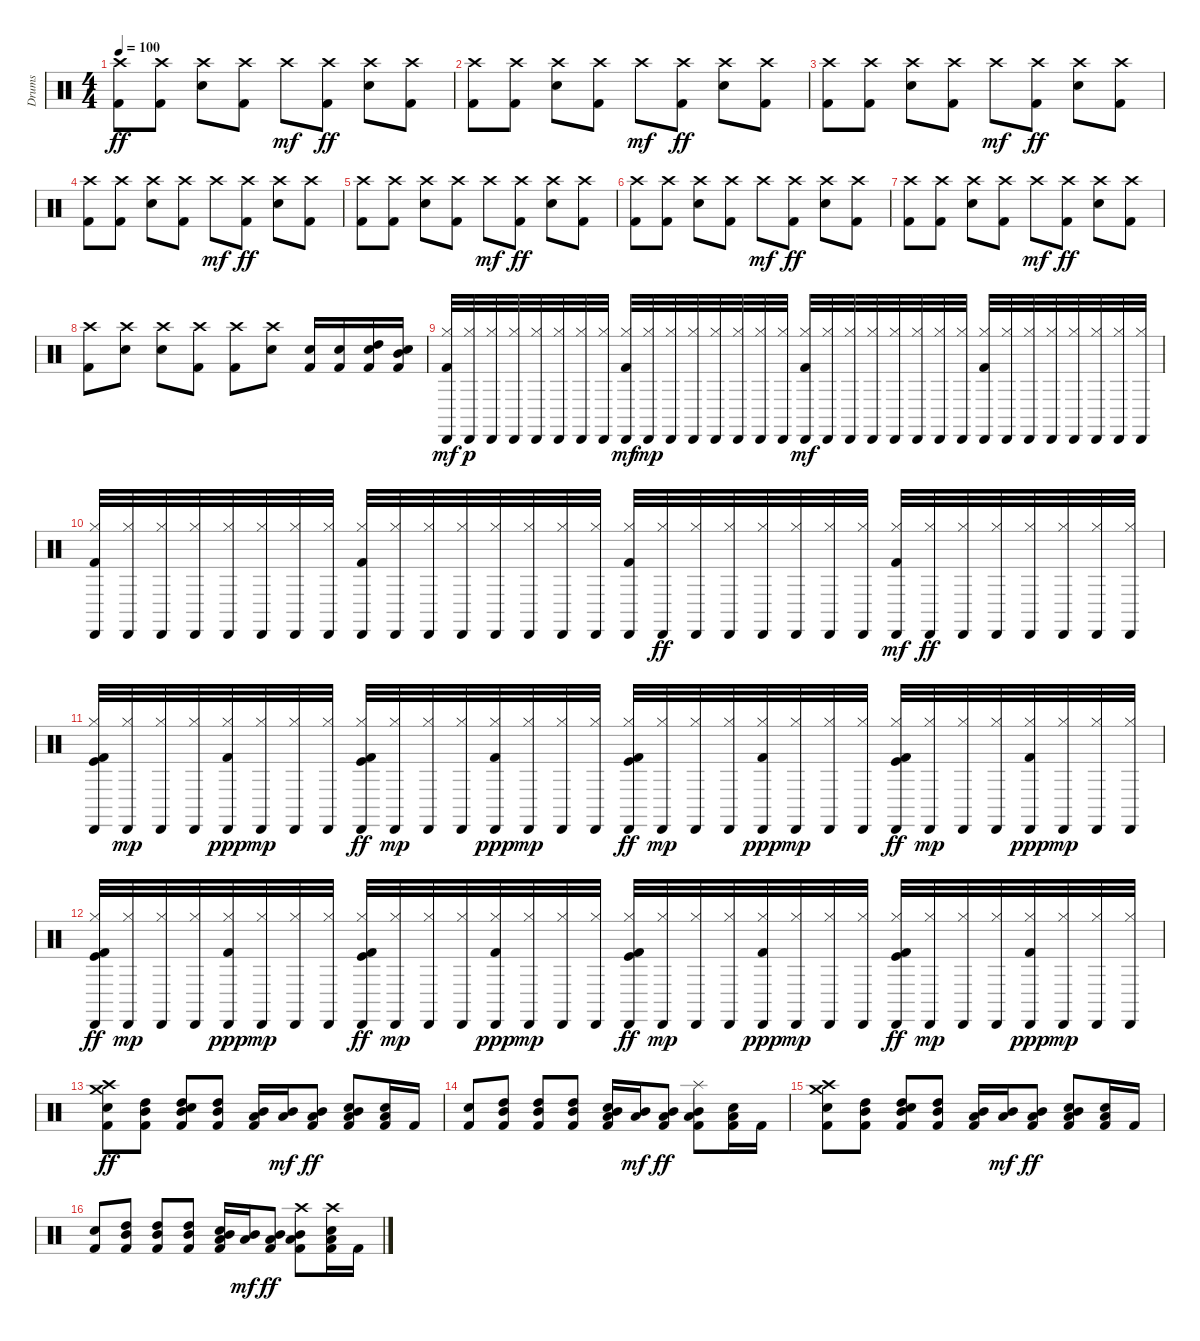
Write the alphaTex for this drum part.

\track ("Drums" "Drums") {instrument percussion}
\staff {score}
\articulation defaults
\ts (4 4)
\tempo 100
\clef neutral
\ks c
("Crash high (hit)" "Kick (hit) 2").8{dy ff} ("Crash high (hit)" "Kick (hit) 2").8 ("Crash high (hit)" "Electric Snare (hit)").8 ("Crash high (hit)" "Kick (hit) 2").8 "Crash high (hit)".8{dy mf} ("Crash high (hit)" "Kick (hit) 2").8{dy ff} ("Crash high (hit)" "Electric Snare (hit)").8 ("Crash high (hit)" "Kick (hit) 2").8 |
("Crash high (hit)" "Kick (hit) 2").8 ("Crash high (hit)" "Kick (hit) 2").8 ("Crash high (hit)" "Electric Snare (hit)").8 ("Crash high (hit)" "Kick (hit) 2").8 "Crash high (hit)".8{dy mf} ("Crash high (hit)" "Kick (hit) 2").8{dy ff} ("Crash high (hit)" "Electric Snare (hit)").8 ("Crash high (hit)" "Kick (hit) 2").8 |
("Crash high (hit)" "Kick (hit) 2").8 ("Crash high (hit)" "Kick (hit) 2").8 ("Crash high (hit)" "Electric Snare (hit)").8 ("Crash high (hit)" "Kick (hit) 2").8 "Crash high (hit)".8{dy mf} ("Crash high (hit)" "Kick (hit) 2").8{dy ff} ("Crash high (hit)" "Electric Snare (hit)").8 ("Crash high (hit)" "Kick (hit) 2").8 |
("Crash high (hit)" "Kick (hit) 2").8 ("Crash high (hit)" "Kick (hit) 2").8 ("Crash high (hit)" "Electric Snare (hit)").8 ("Crash high (hit)" "Kick (hit) 2").8 "Crash high (hit)".8{dy mf} ("Crash high (hit)" "Kick (hit) 2").8{dy ff} ("Crash high (hit)" "Electric Snare (hit)").8 ("Crash high (hit)" "Kick (hit) 2").8 |
("Crash high (hit)" "Kick (hit) 2").8 ("Crash high (hit)" "Kick (hit) 2").8 ("Crash high (hit)" "Electric Snare (hit)").8 ("Crash high (hit)" "Kick (hit) 2").8 "Crash high (hit)".8{dy mf} ("Crash high (hit)" "Kick (hit) 2").8{dy ff} ("Crash high (hit)" "Electric Snare (hit)").8 ("Crash high (hit)" "Kick (hit) 2").8 |
("Crash high (hit)" "Kick (hit) 2").8 ("Crash high (hit)" "Kick (hit) 2").8 ("Crash high (hit)" "Electric Snare (hit)").8 ("Crash high (hit)" "Kick (hit) 2").8 "Crash high (hit)".8{dy mf} ("Crash high (hit)" "Kick (hit) 2").8{dy ff} ("Crash high (hit)" "Electric Snare (hit)").8 ("Crash high (hit)" "Kick (hit) 2").8 |
("Crash high (hit)" "Kick (hit) 2").8 ("Crash high (hit)" "Kick (hit) 2").8 ("Crash high (hit)" "Electric Snare (hit)").8 ("Crash high (hit)" "Kick (hit) 2").8 "Crash high (hit)".8{dy mf} ("Crash high (hit)" "Kick (hit) 2").8{dy ff} ("Crash high (hit)" "Electric Snare (hit)").8 ("Crash high (hit)" "Kick (hit) 2").8 |
("Crash high (hit)" "Kick (hit) 2").8 ("Crash high (hit)" "Electric Snare (hit)").8 ("Crash high (hit)" "Electric Snare (hit)").8 ("Crash high (hit)" "Kick (hit) 2").8 ("Crash high (hit)" "Kick (hit) 2").8 ("Crash high (hit)" "Electric Snare (hit)").8 ("Electric Snare (hit)" "Kick (hit) 2").16 ("Electric Snare (hit)" "Kick (hit) 2").16 ("High Tom (hit)" "Electric Snare (hit)" "Kick (hit) 2").16 ("Mid Tom (hit)" "Electric Snare (hit)" "Kick (hit) 2").16 |
("Hi-Hat (closed)" "Cabasa (hit)" "Kick (hit) 2").32{dy mf volume 5} ("Hi-Hat (closed)" "Cabasa (hit)").32{dy p} ("Hi-Hat (closed)" "Cabasa (hit)").32 ("Hi-Hat (closed)" "Cabasa (hit)").32 ("Hi-Hat (closed)" "Cabasa (hit)").32 ("Hi-Hat (closed)" "Cabasa (hit)").32 ("Hi-Hat (closed)" "Cabasa (hit)").32 ("Hi-Hat (closed)" "Cabasa (hit)").32 ("Hi-Hat (closed)" "Cabasa (hit)" "Kick (hit) 2").32{dy mf} ("Hi-Hat (closed)" "Cabasa (hit)").32{dy mp} ("Hi-Hat (closed)" "Cabasa (hit)").32 ("Hi-Hat (closed)" "Cabasa (hit)").32 ("Hi-Hat (closed)" "Cabasa (hit)").32 ("Hi-Hat (closed)" "Cabasa (hit)").32 ("Hi-Hat (closed)" "Cabasa (hit)").32 ("Hi-Hat (closed)" "Cabasa (hit)").32 ("Hi-Hat (closed)" "Cabasa (hit)" "Kick (hit) 2").32{dy mf} ("Hi-Hat (closed)" "Cabasa (hit)").32 ("Hi-Hat (closed)" "Cabasa (hit)").32 ("Hi-Hat (closed)" "Cabasa (hit)").32 ("Hi-Hat (closed)" "Cabasa (hit)").32 ("Hi-Hat (closed)" "Cabasa (hit)").32 ("Hi-Hat (closed)" "Cabasa (hit)").32 ("Hi-Hat (closed)" "Cabasa (hit)").32 ("Hi-Hat (closed)" "Cabasa (hit)" "Kick (hit) 2").32 ("Hi-Hat (closed)" "Cabasa (hit)").32 ("Hi-Hat (closed)" "Cabasa (hit)").32 ("Hi-Hat (closed)" "Cabasa (hit)").32 ("Hi-Hat (closed)" "Cabasa (hit)").32 ("Hi-Hat (closed)" "Cabasa (hit)").32 ("Hi-Hat (closed)" "Cabasa (hit)").32 ("Hi-Hat (closed)" "Cabasa (hit)").32 |
("Hi-Hat (closed)" "Cabasa (hit)" "Kick (hit) 2").32 ("Hi-Hat (closed)" "Cabasa (hit)").32 ("Hi-Hat (closed)" "Cabasa (hit)").32 ("Hi-Hat (closed)" "Cabasa (hit)").32 ("Hi-Hat (closed)" "Cabasa (hit)").32 ("Hi-Hat (closed)" "Cabasa (hit)").32 ("Hi-Hat (closed)" "Cabasa (hit)").32 ("Hi-Hat (closed)" "Cabasa (hit)").32 ("Hi-Hat (closed)" "Cabasa (hit)" "Kick (hit) 2").32 ("Hi-Hat (closed)" "Cabasa (hit)").32 ("Hi-Hat (closed)" "Cabasa (hit)").32 ("Hi-Hat (closed)" "Cabasa (hit)").32 ("Hi-Hat (closed)" "Cabasa (hit)").32 ("Hi-Hat (closed)" "Cabasa (hit)").32 ("Hi-Hat (closed)" "Cabasa (hit)").32 ("Hi-Hat (closed)" "Cabasa (hit)").32 ("Hi-Hat (closed)" "Cabasa (hit)" "Kick (hit) 2").32 ("Hi-Hat (closed)" "Cabasa (hit)").32{dy ff} ("Hi-Hat (closed)" "Cabasa (hit)").32 ("Hi-Hat (closed)" "Cabasa (hit)").32 ("Hi-Hat (closed)" "Cabasa (hit)").32 ("Hi-Hat (closed)" "Cabasa (hit)").32 ("Hi-Hat (closed)" "Cabasa (hit)").32 ("Hi-Hat (closed)" "Cabasa (hit)").32 ("Hi-Hat (closed)" "Cabasa (hit)" "Kick (hit) 2").32{dy mf} ("Hi-Hat (closed)" "Cabasa (hit)").32{dy ff} ("Hi-Hat (closed)" "Cabasa (hit)").32 ("Hi-Hat (closed)" "Cabasa (hit)").32 ("Hi-Hat (closed)" "Cabasa (hit)").32 ("Hi-Hat (closed)" "Cabasa (hit)").32 ("Hi-Hat (closed)" "Cabasa (hit)").32 ("Hi-Hat (closed)" "Cabasa (hit)").32 |
("Hi-Hat (closed)" "Cabasa (hit)" "Kick (hit)" "Kick (hit) 2").32{volume 16} ("Hi-Hat (closed)" "Cabasa (hit)").32{dy mp} ("Hi-Hat (closed)" "Cabasa (hit)").32 ("Hi-Hat (closed)" "Cabasa (hit)").32 ("Hi-Hat (closed)" "Cabasa (hit)" "Kick (hit) 2").32{dy ppp} ("Hi-Hat (closed)" "Cabasa (hit)").32{dy mp} ("Hi-Hat (closed)" "Cabasa (hit)").32 ("Hi-Hat (closed)" "Cabasa (hit)").32 ("Hi-Hat (closed)" "Cabasa (hit)" "Kick (hit)" "Kick (hit) 2").32{dy ff} ("Hi-Hat (closed)" "Cabasa (hit)").32{dy mp} ("Hi-Hat (closed)" "Cabasa (hit)").32 ("Hi-Hat (closed)" "Cabasa (hit)").32 ("Hi-Hat (closed)" "Cabasa (hit)" "Kick (hit) 2").32{dy ppp} ("Hi-Hat (closed)" "Cabasa (hit)").32{dy mp} ("Hi-Hat (closed)" "Cabasa (hit)").32 ("Hi-Hat (closed)" "Cabasa (hit)").32 ("Hi-Hat (closed)" "Cabasa (hit)" "Kick (hit)" "Kick (hit) 2").32{dy ff} ("Hi-Hat (closed)" "Cabasa (hit)").32{dy mp} ("Hi-Hat (closed)" "Cabasa (hit)").32 ("Hi-Hat (closed)" "Cabasa (hit)").32 ("Hi-Hat (closed)" "Cabasa (hit)" "Kick (hit) 2").32{dy ppp} ("Hi-Hat (closed)" "Cabasa (hit)").32{dy mp} ("Hi-Hat (closed)" "Cabasa (hit)").32 ("Hi-Hat (closed)" "Cabasa (hit)").32 ("Hi-Hat (closed)" "Cabasa (hit)" "Kick (hit)" "Kick (hit) 2").32{dy ff} ("Hi-Hat (closed)" "Cabasa (hit)").32{dy mp} ("Hi-Hat (closed)" "Cabasa (hit)").32 ("Hi-Hat (closed)" "Cabasa (hit)").32 ("Hi-Hat (closed)" "Cabasa (hit)" "Kick (hit) 2").32{dy ppp} ("Hi-Hat (closed)" "Cabasa (hit)").32{dy mp} ("Hi-Hat (closed)" "Cabasa (hit)").32 ("Hi-Hat (closed)" "Cabasa (hit)").32 |
("Hi-Hat (closed)" "Cabasa (hit)" "Kick (hit)" "Kick (hit) 2").32{dy ff} ("Hi-Hat (closed)" "Cabasa (hit)").32{dy mp} ("Hi-Hat (closed)" "Cabasa (hit)").32 ("Hi-Hat (closed)" "Cabasa (hit)").32 ("Hi-Hat (closed)" "Cabasa (hit)" "Kick (hit) 2").32{dy ppp} ("Hi-Hat (closed)" "Cabasa (hit)").32{dy mp} ("Hi-Hat (closed)" "Cabasa (hit)").32 ("Hi-Hat (closed)" "Cabasa (hit)").32 ("Hi-Hat (closed)" "Cabasa (hit)" "Kick (hit)" "Kick (hit) 2").32{dy ff} ("Hi-Hat (closed)" "Cabasa (hit)").32{dy mp} ("Hi-Hat (closed)" "Cabasa (hit)").32 ("Hi-Hat (closed)" "Cabasa (hit)").32 ("Hi-Hat (closed)" "Cabasa (hit)" "Kick (hit) 2").32{dy ppp} ("Hi-Hat (closed)" "Cabasa (hit)").32{dy mp} ("Hi-Hat (closed)" "Cabasa (hit)").32 ("Hi-Hat (closed)" "Cabasa (hit)").32 ("Hi-Hat (closed)" "Cabasa (hit)" "Kick (hit)" "Kick (hit) 2").32{dy ff} ("Hi-Hat (closed)" "Cabasa (hit)").32{dy mp} ("Hi-Hat (closed)" "Cabasa (hit)").32 ("Hi-Hat (closed)" "Cabasa (hit)").32 ("Hi-Hat (closed)" "Cabasa (hit)" "Kick (hit) 2").32{dy ppp} ("Hi-Hat (closed)" "Cabasa (hit)").32{dy mp} ("Hi-Hat (closed)" "Cabasa (hit)").32 ("Hi-Hat (closed)" "Cabasa (hit)").32 ("Hi-Hat (closed)" "Cabasa (hit)" "Kick (hit)" "Kick (hit) 2").32{dy ff} ("Hi-Hat (closed)" "Cabasa (hit)").32{dy mp} ("Hi-Hat (closed)" "Cabasa (hit)").32 ("Hi-Hat (closed)" "Cabasa (hit)").32 ("Hi-Hat (closed)" "Cabasa (hit)" "Kick (hit) 2").32{dy ppp} ("Hi-Hat (closed)" "Cabasa (hit)").32{dy mp} ("Hi-Hat (closed)" "Cabasa (hit)").32 ("Hi-Hat (closed)" "Cabasa (hit)").32 |
("Electric Snare (hit)" "Crash medium (hit)" "Crash high (hit)" "Kick (hit) 2").8{dy ff} ("High Tom (hit)" "Mid Tom (hit)" "Kick (hit) 2").8 ("High Tom (hit)" "Mid Tom (hit)" "Electric Snare (hit)" "Kick (hit) 2").8 ("High Tom (hit)" "Mid Tom (hit)" "Kick (hit) 2").8 ("Mid Tom (hit)" "Low Tom (hit)" "Kick (hit) 2").16 ("Mid Tom (hit)" "Low Tom (hit)").16{dy mf} ("Mid Tom (hit)" "Low Tom (hit)" "Kick (hit) 2").8{dy ff} ("Mid Tom (hit)" "Low Tom (hit)" "Electric Snare (hit)" "Kick (hit) 2").8 ("Low Tom (hit)" "Metronome (bell)" "Kick (hit) 2").16 "Kick (hit) 2".16 |
("Electric Snare (hit)" "Kick (hit) 2").8 ("High Tom (hit)" "Mid Tom (hit)" "Kick (hit) 2").8 ("High Tom (hit)" "Mid Tom (hit)" "Kick (hit) 2").8 ("High Tom (hit)" "Mid Tom (hit)" "Kick (hit) 2").8 ("Mid Tom (hit)" "Low Tom (hit)" "Electric Snare (hit)" "Kick (hit) 2").16 ("Mid Tom (hit)" "Low Tom (hit)").16{dy mf} ("Mid Tom (hit)" "Low Tom (hit)" "Kick (hit) 2").8{dy ff} ("Mid Tom (hit)" "Low Tom (hit)" "Splash (hit)" "Kick (hit) 2").8 ("Low Tom (hit)" "Metronome (bell)" "Kick (hit) 2").16 "Kick (hit) 2".16 |
("Electric Snare (hit)" "Crash medium (hit)" "Crash high (hit)" "Kick (hit) 2").8 ("High Tom (hit)" "Mid Tom (hit)" "Kick (hit) 2").8 ("High Tom (hit)" "Mid Tom (hit)" "Electric Snare (hit)" "Kick (hit) 2").8 ("High Tom (hit)" "Mid Tom (hit)" "Kick (hit) 2").8 ("Mid Tom (hit)" "Low Tom (hit)" "Kick (hit) 2").16 ("Mid Tom (hit)" "Low Tom (hit)").16{dy mf} ("Mid Tom (hit)" "Low Tom (hit)" "Kick (hit) 2").8{dy ff} ("Mid Tom (hit)" "Low Tom (hit)" "Electric Snare (hit)" "Kick (hit) 2").8 ("Low Tom (hit)" "Metronome (bell)" "Kick (hit) 2").16 "Kick (hit) 2".16 |
("Electric Snare (hit)" "Kick (hit) 2").8 ("High Tom (hit)" "Mid Tom (hit)" "Kick (hit) 2").8 ("High Tom (hit)" "Mid Tom (hit)" "Kick (hit) 2").8 ("High Tom (hit)" "Mid Tom (hit)" "Kick (hit) 2").8 ("Mid Tom (hit)" "Low Tom (hit)" "Electric Snare (hit)" "Kick (hit) 2").16 ("Mid Tom (hit)" "Low Tom (hit)").16{dy mf} ("Mid Tom (hit)" "Low Tom (hit)" "Kick (hit) 2").8{dy ff} ("Mid Tom (hit)" "Low Tom (hit)" "Crash high (hit)" "Kick (hit) 2").8 ("Low Tom (hit)" "Metronome (bell)" "Crash high (hit)" "Kick (hit) 2").16 "Kick (hit) 2".16
